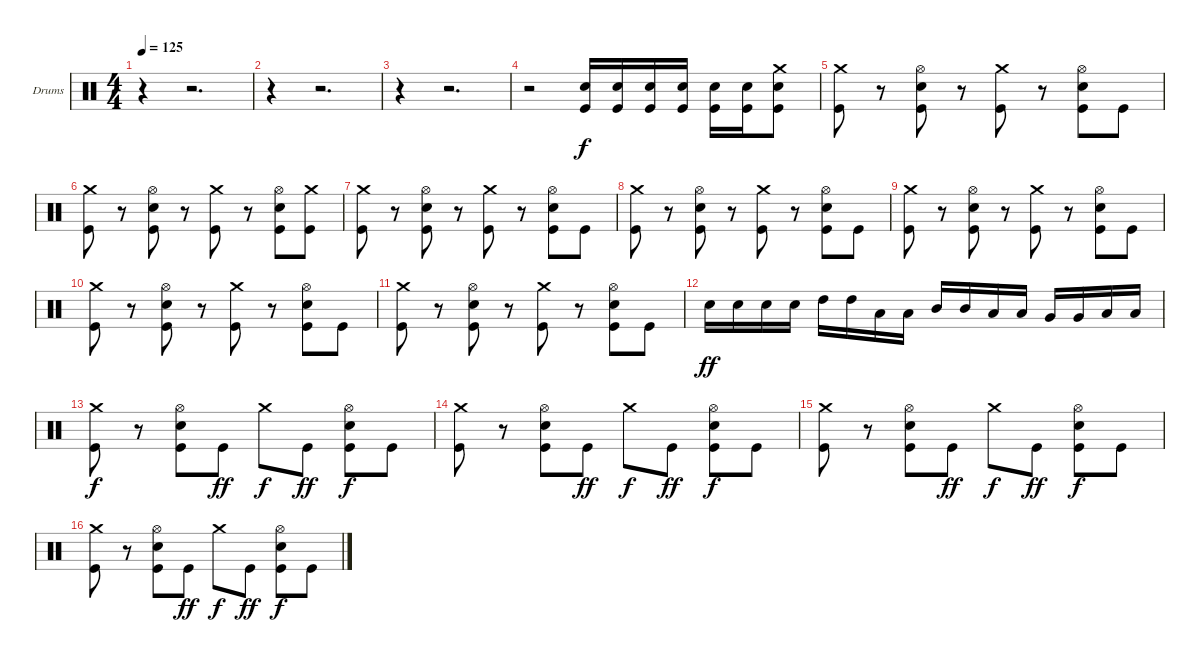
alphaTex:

\defaultSystemsLayout 4
\bracketExtendMode groupsimilarinstruments
\firstSystemTrackNameOrientation horizontal
\otherSystemsTrackNameOrientation horizontal
\track ("Drumkit" "Drums") {instrument percussion}
\staff {score}
\articulation defaults
\ts (4 4)
\tempo 125
\clef neutral
\ks c
r.4{dy f} r.2{d} |
r.4 r.2{d} |
r.4 r.2{d} |
r.2 ("Kick (hit)" "Snare (hit) 2").16 ("Kick (hit)" "Snare (hit) 2").16 ("Kick (hit)" "Snare (hit) 2").16 ("Kick (hit)" "Snare (hit) 2").16 ("Kick (hit)" "Snare (hit) 2").16 ("Kick (hit)" "Snare (hit) 2").16 ("Kick (hit)" "Snare (hit) 2" "Crash medium (hit)").8 |
("Kick (hit)" "Crash medium (hit)").8 r.8 ("Kick (hit)" "Snare (hit) 2" "Hi-Hat (open)").8 r.8 ("Kick (hit)" "Crash medium (hit)").8 r.8 ("Kick (hit)" "Snare (hit) 2" "Hi-Hat (open)").8 "Kick (hit)".8 |
("Kick (hit)" "Crash medium (hit)").8 r.8 ("Kick (hit)" "Snare (hit) 2" "Hi-Hat (open)").8 r.8 ("Kick (hit)" "Crash medium (hit)").8 r.8 ("Kick (hit)" "Snare (hit) 2" "Hi-Hat (open)").8 ("Kick (hit)" "Crash medium (hit)").8 |
("Kick (hit)" "Crash medium (hit)").8 r.8 ("Kick (hit)" "Snare (hit) 2" "Hi-Hat (open)").8 r.8 ("Kick (hit)" "Crash medium (hit)").8 r.8 ("Kick (hit)" "Snare (hit) 2" "Hi-Hat (open)").8 "Kick (hit)".8 |
("Kick (hit)" "Crash medium (hit)").8 r.8 ("Kick (hit)" "Snare (hit) 2" "Hi-Hat (open)").8 r.8 ("Kick (hit)" "Crash medium (hit)").8 r.8 ("Kick (hit)" "Snare (hit) 2" "Hi-Hat (open)").8 "Kick (hit)".8 |
("Kick (hit)" "Crash medium (hit)").8 r.8 ("Kick (hit)" "Snare (hit) 2" "Hi-Hat (open)").8 r.8 ("Kick (hit)" "Crash medium (hit)").8 r.8 ("Kick (hit)" "Snare (hit) 2" "Hi-Hat (open)").8 "Kick (hit)".8 |
("Kick (hit)" "Crash medium (hit)").8 r.8 ("Kick (hit)" "Snare (hit) 2" "Hi-Hat (open)").8 r.8 ("Kick (hit)" "Crash medium (hit)").8 r.8 ("Kick (hit)" "Snare (hit) 2" "Hi-Hat (open)").8 "Kick (hit)".8 |
("Kick (hit)" "Crash medium (hit)").8 r.8 ("Kick (hit)" "Snare (hit) 2" "Hi-Hat (open)").8 r.8 ("Kick (hit)" "Crash medium (hit)").8 r.8 ("Kick (hit)" "Snare (hit) 2" "Hi-Hat (open)").8 "Kick (hit)".8 |
"Snare (hit) 2".16{dy ff} "Snare (hit) 2".16 "Snare (hit) 2".16 "Snare (hit) 2".16 "High Tom (hit)".16 "High Tom (hit)".16 "Low Tom (hit)".16 "Low Tom (hit)".16 "Mid Tom (hit)".16 "Mid Tom (hit)".16 "Low Tom (hit)".16 "Low Tom (hit)".16 "Very Low Tom (hit)".16 "Very Low Tom (hit)".16 "Low Tom (hit)".16 "Low Tom (hit)".16 |
("Kick (hit)" "Crash medium (hit)").8{dy f} r.8 ("Kick (hit)" "Snare (hit) 2" "Hi-Hat (open)").8 "Kick (hit)".8{dy ff} "Crash medium (hit)".8{dy f} "Kick (hit)".8{dy ff} ("Kick (hit)" "Snare (hit) 2" "Hi-Hat (open)").8{dy f} "Kick (hit)".8 |
("Kick (hit)" "Crash medium (hit)").8 r.8 ("Kick (hit)" "Snare (hit) 2" "Hi-Hat (open)").8 "Kick (hit)".8{dy ff} "Crash medium (hit)".8{dy f} "Kick (hit)".8{dy ff} ("Kick (hit)" "Snare (hit) 2" "Hi-Hat (open)").8{dy f} "Kick (hit)".8 |
("Kick (hit)" "Crash medium (hit)").8 r.8 ("Kick (hit)" "Snare (hit) 2" "Hi-Hat (open)").8 "Kick (hit)".8{dy ff} "Crash medium (hit)".8{dy f} "Kick (hit)".8{dy ff} ("Kick (hit)" "Snare (hit) 2" "Hi-Hat (open)").8{dy f} "Kick (hit)".8 |
("Kick (hit)" "Crash medium (hit)").8 r.8 ("Kick (hit)" "Snare (hit) 2" "Hi-Hat (open)").8 "Kick (hit)".8{dy ff} "Crash medium (hit)".8{dy f} "Kick (hit)".8{dy ff} ("Kick (hit)" "Snare (hit) 2" "Hi-Hat (open)").8{dy f} "Kick (hit)".8
